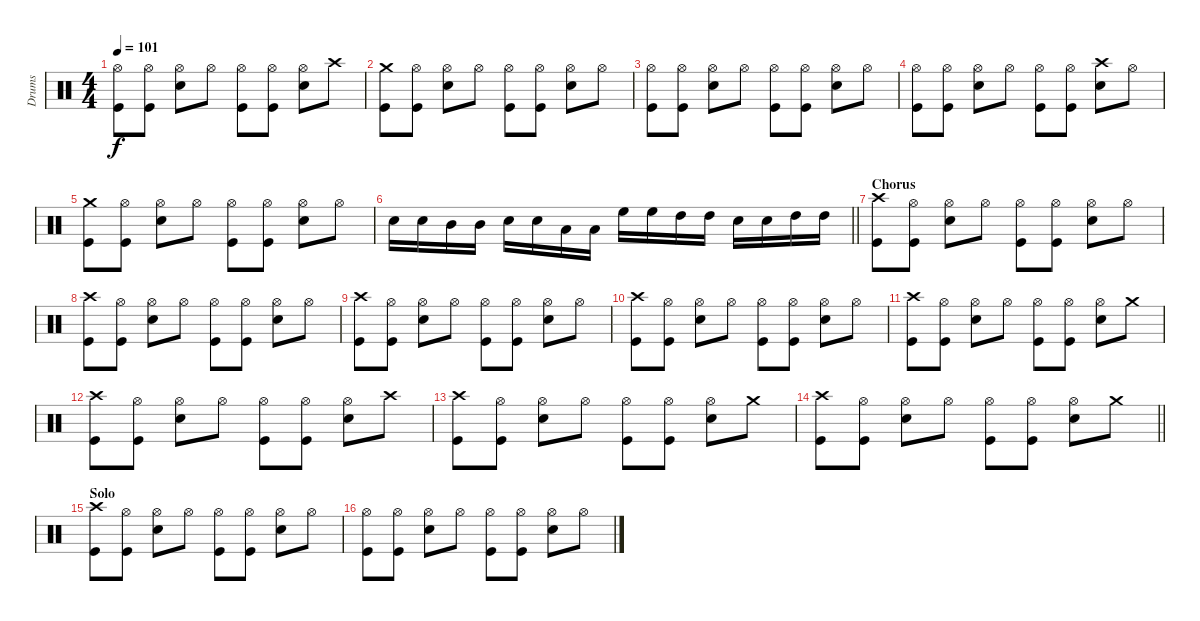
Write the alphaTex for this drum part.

\track ("Drums" "Drums") {instrument percussion}
\staff {score}
\articulation defaults
\ts (4 4)
\tempo 101
\clef neutral
\ks c
("Hi-Hat (open)" "Kick (hit)").8{dy f} ("Hi-Hat (open)" "Kick (hit)").8 ("Hi-Hat (open)" "Snare (hit) 2").8 "Hi-Hat (open)".8 ("Hi-Hat (open)" "Kick (hit)").8 ("Hi-Hat (open)" "Kick (hit)").8 ("Hi-Hat (open)" "Snare (hit) 2").8 "Crash high (hit)".8 |
("Crash medium (hit)" "Kick (hit)").8 ("Hi-Hat (open)" "Kick (hit)").8 ("Hi-Hat (open)" "Snare (hit) 2").8 "Hi-Hat (open)".8 ("Hi-Hat (open)" "Kick (hit)").8 ("Hi-Hat (open)" "Kick (hit)").8 ("Hi-Hat (open)" "Snare (hit) 2").8 "Hi-Hat (open)".8 |
("Hi-Hat (open)" "Kick (hit)").8 ("Hi-Hat (open)" "Kick (hit)").8 ("Hi-Hat (open)" "Snare (hit) 2").8 "Hi-Hat (open)".8 ("Hi-Hat (open)" "Kick (hit)").8 ("Hi-Hat (open)" "Kick (hit)").8 ("Hi-Hat (open)" "Snare (hit) 2").8 "Hi-Hat (open)".8 |
("Hi-Hat (open)" "Kick (hit)").8 ("Hi-Hat (open)" "Kick (hit)").8 ("Hi-Hat (open)" "Snare (hit) 2").8 "Hi-Hat (open)".8 ("Hi-Hat (open)" "Kick (hit)").8 ("Hi-Hat (open)" "Kick (hit)").8 ("Crash high (hit)" "Snare (hit) 2").8 "Hi-Hat (open)".8 |
("Crash medium (hit)" "Kick (hit)").8 ("Hi-Hat (open)" "Kick (hit)").8 ("Hi-Hat (open)" "Snare (hit) 2").8 "Hi-Hat (open)".8 ("Hi-Hat (open)" "Kick (hit)").8 ("Hi-Hat (open)" "Kick (hit)").8 ("Hi-Hat (open)" "Snare (hit) 2").8 "Hi-Hat (open)".8 |
\barLineRight lightlight "Snare (hit) 2".16 "Snare (hit) 2".16 "Mid Tom (hit)".16 "Mid Tom (hit)".16 "Snare (hit) 2".16 "Snare (hit) 2".16 "Low Tom (hit)".16 "Low Tom (hit)".16 "High Floor Tom (hit)".16 "High Floor Tom (hit)".16 "High Tom (hit)".16 "High Tom (hit)".16 "Snare (hit) 2".16 "Snare (hit) 2".16 "High Tom (hit)".16 "High Tom (hit)".16
|
\section ("" "Chorus")
("Crash high (hit)" "Kick (hit)").8 ("Hi-Hat (open)" "Kick (hit)").8 ("Hi-Hat (open)" "Snare (hit) 2").8 "Hi-Hat (open)".8 ("Hi-Hat (open)" "Kick (hit)").8 ("Hi-Hat (open)" "Kick (hit)").8 ("Hi-Hat (open)" "Snare (hit) 2").8 "Hi-Hat (open)".8 |
("Crash high (hit)" "Kick (hit)").8 ("Hi-Hat (open)" "Kick (hit)").8 ("Hi-Hat (open)" "Snare (hit) 2").8 "Hi-Hat (open)".8 ("Hi-Hat (open)" "Kick (hit)").8 ("Hi-Hat (open)" "Kick (hit)").8 ("Hi-Hat (open)" "Snare (hit) 2").8 "Hi-Hat (open)".8 |
("Crash high (hit)" "Kick (hit)").8 ("Hi-Hat (open)" "Kick (hit)").8 ("Hi-Hat (open)" "Snare (hit) 2").8 "Hi-Hat (open)".8 ("Hi-Hat (open)" "Kick (hit)").8 ("Hi-Hat (open)" "Kick (hit)").8 ("Hi-Hat (open)" "Snare (hit) 2").8 "Hi-Hat (open)".8 |
("Crash high (hit)" "Kick (hit)").8 ("Hi-Hat (open)" "Kick (hit)").8 ("Hi-Hat (open)" "Snare (hit) 2").8 "Hi-Hat (open)".8 ("Hi-Hat (open)" "Kick (hit)").8 ("Hi-Hat (open)" "Kick (hit)").8 ("Hi-Hat (open)" "Snare (hit) 2").8 "Hi-Hat (open)".8 |
("Crash high (hit)" "Kick (hit)").8 ("Hi-Hat (open)" "Kick (hit)").8 ("Hi-Hat (open)" "Snare (hit) 2").8 "Hi-Hat (open)".8 ("Hi-Hat (open)" "Kick (hit)").8 ("Hi-Hat (open)" "Kick (hit)").8 ("Hi-Hat (open)" "Snare (hit) 2").8 "Crash medium (hit)".8 |
("Crash high (hit)" "Kick (hit)").8 ("Hi-Hat (open)" "Kick (hit)").8 ("Hi-Hat (open)" "Snare (hit) 2").8 "Hi-Hat (open)".8 ("Hi-Hat (open)" "Kick (hit)").8 ("Hi-Hat (open)" "Kick (hit)").8 ("Hi-Hat (open)" "Snare (hit) 2").8 "Crash high (hit)".8 |
("Crash high (hit)" "Kick (hit)").8 ("Hi-Hat (open)" "Kick (hit)").8 ("Hi-Hat (open)" "Snare (hit) 2").8 "Hi-Hat (open)".8 ("Hi-Hat (open)" "Kick (hit)").8 ("Hi-Hat (open)" "Kick (hit)").8 ("Hi-Hat (open)" "Snare (hit) 2").8 "Crash medium (hit)".8 |
\barLineRight lightlight
("Crash high (hit)" "Kick (hit)").8 ("Hi-Hat (open)" "Kick (hit)").8 ("Hi-Hat (open)" "Snare (hit) 2").8 "Hi-Hat (open)".8 ("Hi-Hat (open)" "Kick (hit)").8 ("Hi-Hat (open)" "Kick (hit)").8 ("Hi-Hat (open)" "Snare (hit) 2").8 "Crash medium (hit)".8 |
\section ("" "Solo")
("Crash high (hit)" "Kick (hit)").8 ("Hi-Hat (open)" "Kick (hit)").8 ("Hi-Hat (open)" "Snare (hit) 2").8 "Hi-Hat (open)".8 ("Hi-Hat (open)" "Kick (hit)").8 ("Hi-Hat (open)" "Kick (hit)").8 ("Hi-Hat (open)" "Snare (hit) 2").8 "Hi-Hat (open)".8 |
("Hi-Hat (open)" "Kick (hit)").8 ("Hi-Hat (open)" "Kick (hit)").8 ("Hi-Hat (open)" "Snare (hit) 2").8 "Hi-Hat (open)".8 ("Hi-Hat (open)" "Kick (hit)").8 ("Hi-Hat (open)" "Kick (hit)").8 ("Hi-Hat (open)" "Snare (hit) 2").8 "Hi-Hat (open)".8
